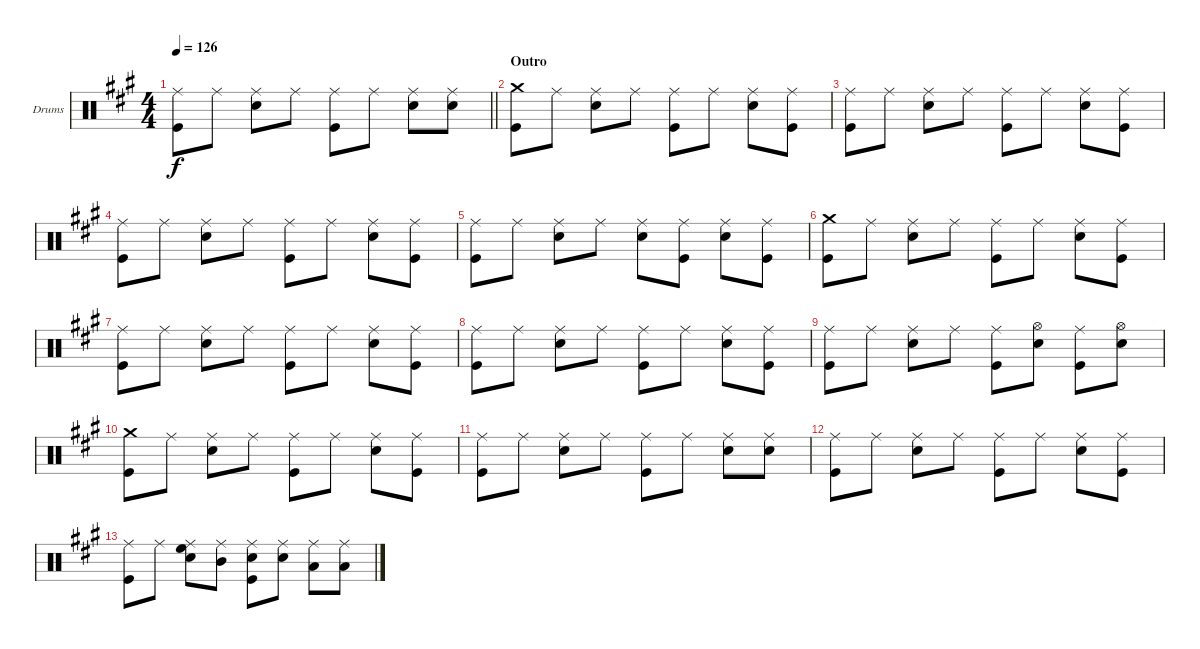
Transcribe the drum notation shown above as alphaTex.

\bracketExtendMode groupsimilarinstruments
\firstSystemTrackNameOrientation horizontal
\otherSystemsTrackNameOrientation horizontal
\track ("Drumkit" "Drums") {instrument percussion}
\staff {score}
\articulation defaults
\ts (4 4)
\tempo 126
\clef neutral
\barLineRight lightlight
\ks a
("Ride (middle)" "Kick (hit)").8{dy f} "Ride (middle)".8 ("Ride (middle)" "Snare (hit) 2").8 "Ride (middle)".8 ("Ride (middle)" "Kick (hit)").8 "Ride (middle)".8 ("Ride (middle)" "Snare (hit) 2").8 ("Ride (middle)" "Snare (hit) 2").8 |
\section ("" "Outro")
("Crash medium (hit)" "Kick (hit)").8 "Ride (middle)".8 ("Ride (middle)" "Snare (hit) 2").8 "Ride (middle)".8 ("Ride (middle)" "Kick (hit)").8 "Ride (middle)".8 ("Ride (middle)" "Snare (hit) 2").8 ("Ride (middle)" "Kick (hit)").8 |
("Ride (middle)" "Kick (hit)").8 "Ride (middle)".8 ("Ride (middle)" "Snare (hit) 2").8 "Ride (middle)".8 ("Ride (middle)" "Kick (hit)").8 "Ride (middle)".8 ("Ride (middle)" "Snare (hit) 2").8 ("Ride (middle)" "Kick (hit)").8 |
("Ride (middle)" "Kick (hit)").8 "Ride (middle)".8 ("Ride (middle)" "Snare (hit) 2").8 "Ride (middle)".8 ("Ride (middle)" "Kick (hit)").8 "Ride (middle)".8 ("Ride (middle)" "Snare (hit) 2").8 ("Ride (middle)" "Kick (hit)").8 |
("Ride (middle)" "Kick (hit)").8 "Ride (middle)".8 ("Ride (middle)" "Snare (hit) 2").8 "Ride (middle)".8 ("Ride (middle)" "Snare (hit) 2").8 ("Ride (middle)" "Kick (hit)").8 ("Ride (middle)" "Snare (hit) 2").8 ("Ride (middle)" "Kick (hit)").8 |
("Crash medium (hit)" "Kick (hit)").8 "Ride (middle)".8 ("Ride (middle)" "Snare (hit) 2").8 "Ride (middle)".8 ("Ride (middle)" "Kick (hit)").8 "Ride (middle)".8 ("Ride (middle)" "Snare (hit) 2").8 ("Ride (middle)" "Kick (hit)").8 |
("Ride (middle)" "Kick (hit)").8 "Ride (middle)".8 ("Ride (middle)" "Snare (hit) 2").8 "Ride (middle)".8 ("Ride (middle)" "Kick (hit)").8 "Ride (middle)".8 ("Ride (middle)" "Snare (hit) 2").8 ("Ride (middle)" "Kick (hit)").8 |
("Ride (middle)" "Kick (hit)").8 "Ride (middle)".8 ("Ride (middle)" "Snare (hit) 2").8 "Ride (middle)".8 ("Ride (middle)" "Kick (hit)").8 "Ride (middle)".8 ("Ride (middle)" "Snare (hit) 2").8 ("Ride (middle)" "Kick (hit)").8 |
("Ride (middle)" "Kick (hit)").8 "Ride (middle)".8 ("Ride (middle)" "Snare (hit) 2").8 "Ride (middle)".8 ("Ride (middle)" "Kick (hit)").8 ("Hi-Hat (open)" "Snare (hit) 2").8 ("Ride (middle)" "Kick (hit)").8 ("Hi-Hat (open)" "Snare (hit) 2").8 |
("Crash medium (hit)" "Kick (hit)").8 "Ride (middle)".8 ("Ride (middle)" "Snare (hit) 2").8 "Ride (middle)".8 ("Ride (middle)" "Kick (hit)").8 "Ride (middle)".8 ("Ride (middle)" "Snare (hit) 2").8 ("Ride (middle)" "Kick (hit)").8 |
("Ride (middle)" "Kick (hit)").8 "Ride (middle)".8 ("Ride (middle)" "Snare (hit) 2").8 "Ride (middle)".8 ("Ride (middle)" "Kick (hit)").8 "Ride (middle)".8 ("Ride (middle)" "Snare (hit) 2").8 ("Ride (middle)" "Snare (hit) 2").8 |
("Ride (middle)" "Kick (hit)").8 "Ride (middle)".8 ("Ride (middle)" "Snare (hit) 2").8 "Ride (middle)".8 ("Ride (middle)" "Kick (hit)").8 "Ride (middle)".8 ("Ride (middle)" "Snare (hit) 2").8 ("Ride (middle)" "Kick (hit)").8 |
("Ride (middle)" "Kick (hit)").8 "Ride (middle)".8 ("Ride (middle)" "High Floor Tom (hit)" "Snare (hit) 2").8 ("Ride (middle)" "Mid Tom (hit)").8 ("Ride (middle)" "Snare (hit) 2" "Kick (hit)").8 ("Ride (middle)" "Snare (hit) 2").8 ("Ride (middle)" "Low Tom (hit)").8 ("Ride (middle)" "Low Tom (hit)").8
